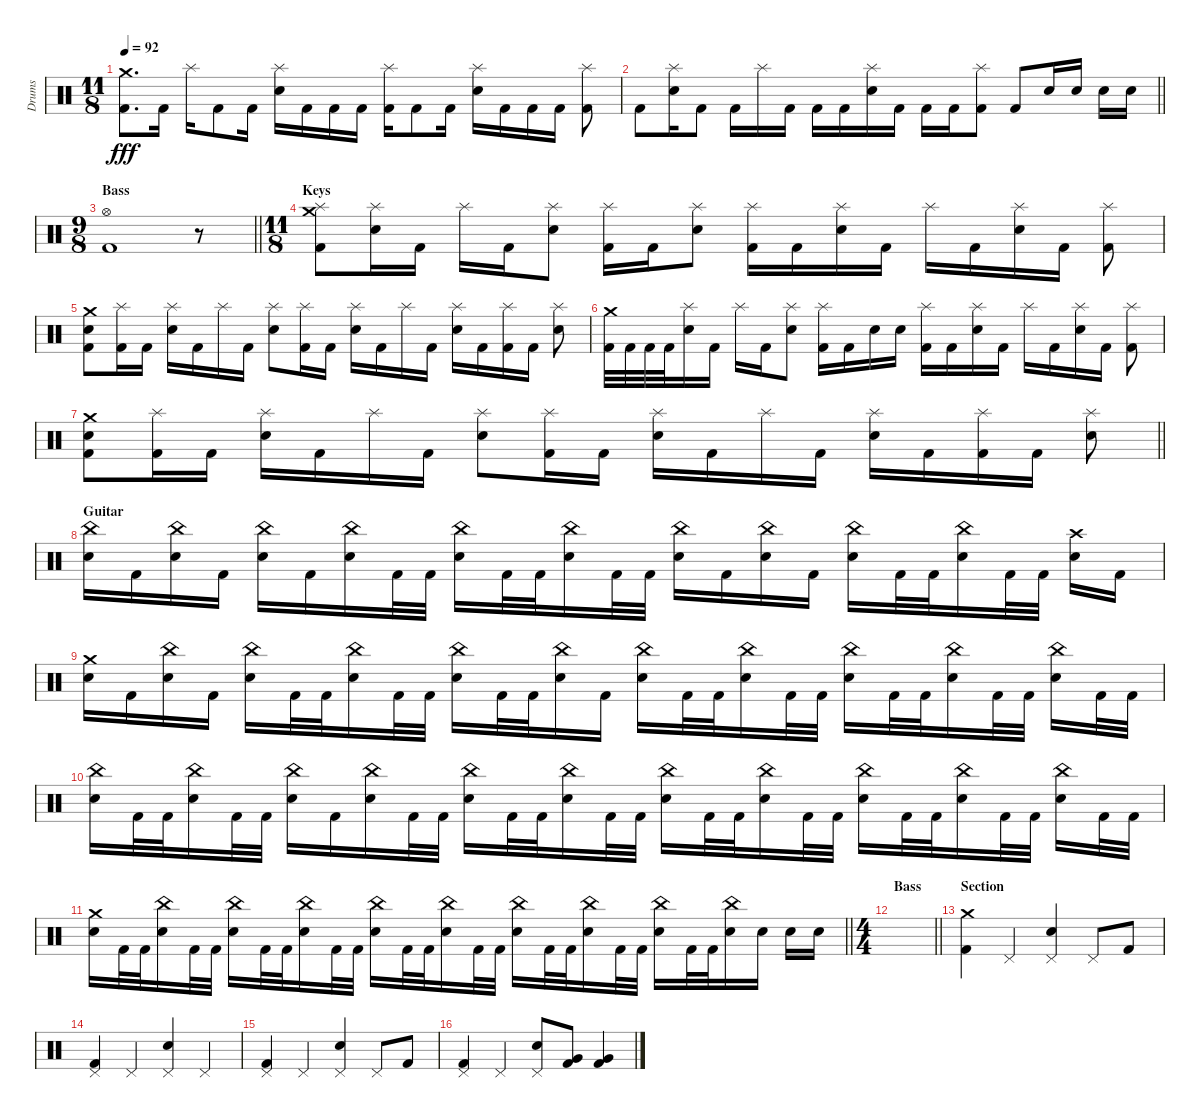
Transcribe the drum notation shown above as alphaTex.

\track ("Drums" "Drums") {instrument percussion}
\staff {score}
\articulation defaults
\ts (11 8)
\tempo 92
\clef neutral
\ks c
("Crash medium (hit)" "Kick (hit) 2").8{d dy fff} "Kick (hit) 2".16 "Splash (hit)".16 "Kick (hit) 2".8 "Kick (hit) 2".16 ("Splash (hit)" "Snare (hit) 2").16 "Kick (hit) 2".16 "Kick (hit) 2".16 "Kick (hit) 2".16 ("Splash (hit)" "Kick (hit) 2").16 "Kick (hit) 2".8 "Kick (hit) 2".16 ("Splash (hit)" "Snare (hit) 2").16 "Kick (hit) 2".16 "Kick (hit) 2".16 "Kick (hit) 2".16 ("Splash (hit)" "Kick (hit) 2").8 |
\barLineRight lightlight "Kick (hit) 2".8
("Splash (hit)" "Snare (hit) 2").16 "Kick (hit) 2".8 "Kick (hit) 2".16 "Splash (hit)".16 "Kick (hit) 2".16 "Kick (hit) 2".16 "Kick (hit) 2".16 ("Splash (hit)" "Snare (hit) 2").16 "Kick (hit) 2".16 "Kick (hit) 2".16 "Kick (hit) 2".16 ("Splash (hit)" "Kick (hit) 2").8 "Kick (hit) 2".8 "Snare (hit) 2".16 "Snare (hit) 2".16 "Snare (hit) 2".16 "Snare (hit) 2".16 |
\ts (9 8)
\section ("" "Bass ")
\barLineRight lightlight
("Hi-Hat (open)" "Kick (hit) 2").1 r.8 |
\ts (11 8)
\section ("" "Keys ")
("Crash medium (hit)" "Splash (hit)" "Kick (hit) 2").8 ("Splash (hit)" "Snare (hit) 2").16 "Kick (hit) 2".16 "Splash (hit)".16 "Kick (hit) 2".16 ("Splash (hit)" "Snare (hit) 2").8 ("Splash (hit)" "Kick (hit) 2").16 "Kick (hit) 2".16 ("Splash (hit)" "Snare (hit) 2").8 ("Splash (hit)" "Kick (hit) 2").16 "Kick (hit) 2".16 ("Splash (hit)" "Snare (hit) 2").16 "Kick (hit) 2".16 "Splash (hit)".16 "Kick (hit) 2".16 ("Splash (hit)" "Snare (hit) 2").16 "Kick (hit) 2".16 ("Splash (hit)" "Kick (hit) 2").8 |
("Crash medium (hit)" "Snare (hit) 2" "Kick (hit) 2").8 ("Splash (hit)" "Kick (hit) 2").16 "Kick (hit) 2".16 ("Splash (hit)" "Snare (hit) 2").16 "Kick (hit) 2".16 "Splash (hit)".16 "Kick (hit) 2".16 ("Splash (hit)" "Snare (hit) 2").8 ("Splash (hit)" "Kick (hit) 2").16 "Kick (hit) 2".16 ("Splash (hit)" "Snare (hit) 2").16 "Kick (hit) 2".16 "Splash (hit)".16 "Kick (hit) 2".16 ("Splash (hit)" "Snare (hit) 2").16 "Kick (hit) 2".16 ("Splash (hit)" "Kick (hit) 2").16 "Kick (hit) 2".16 ("Splash (hit)" "Snare (hit) 2").8 |
("Crash medium (hit)" "Kick (hit) 2").32 "Kick (hit) 2".32 "Kick (hit) 2".32 "Kick (hit) 2".32 ("Splash (hit)" "Snare (hit) 2").16 "Kick (hit) 2".16 "Splash (hit)".16 "Kick (hit) 2".16 ("Splash (hit)" "Snare (hit) 2").8 ("Splash (hit)" "Kick (hit) 2").16 "Kick (hit) 2".16 "Snare (hit) 2".16 "Snare (hit) 2".16 ("Splash (hit)" "Kick (hit) 2").16 "Kick (hit) 2".16 ("Splash (hit)" "Snare (hit) 2").16 "Kick (hit) 2".16 "Splash (hit)".16 "Kick (hit) 2".16 ("Splash (hit)" "Snare (hit) 2").16 "Kick (hit) 2".16 ("Splash (hit)" "Kick (hit) 2").8 |
\barLineRight lightlight
("Crash medium (hit)" "Snare (hit) 2" "Kick (hit) 2").8 ("Splash (hit)" "Kick (hit) 2").16 "Kick (hit) 2".16 ("Splash (hit)" "Snare (hit) 2").16 "Kick (hit) 2".16 "Splash (hit)".16 "Kick (hit) 2".16 ("Splash (hit)" "Snare (hit) 2").8 ("Splash (hit)" "Kick (hit) 2").16 "Kick (hit) 2".16 ("Splash (hit)" "Snare (hit) 2").16 "Kick (hit) 2".16 "Splash (hit)".16 "Kick (hit) 2".16 ("Splash (hit)" "Snare (hit) 2").16 "Kick (hit) 2".16 ("Splash (hit)" "Kick (hit) 2").16 "Kick (hit) 2".16 ("Splash (hit)" "Snare (hit) 2").8 |
\section ("" "Guitar")
("China (hit)" "Snare (hit) 2").16 "Kick (hit) 2".16 ("China (hit)" "Snare (hit) 2").16 "Kick (hit) 2".16 ("China (hit)" "Snare (hit) 2").16 "Kick (hit) 2".16 ("China (hit)" "Snare (hit) 2").16 "Kick (hit) 2".32 "Kick (hit) 2".32 ("China (hit)" "Snare (hit) 2").16 "Kick (hit) 2".32 "Kick (hit) 2".32 ("China (hit)" "Snare (hit) 2").16 "Kick (hit) 2".32 "Kick (hit) 2".32 ("China (hit)" "Snare (hit) 2").16 "Kick (hit) 2".16 ("China (hit)" "Snare (hit) 2").16 "Kick (hit) 2".16 ("China (hit)" "Snare (hit) 2").16 "Kick (hit) 2".32 "Kick (hit) 2".32 ("China (hit)" "Snare (hit) 2").16 "Kick (hit) 2".32 "Kick (hit) 2".32 ("Crash high (hit)" "Snare (hit) 2").16 "Kick (hit) 2".16 |
("Crash medium (hit)" "Snare (hit) 2").16 "Kick (hit) 2".16 ("China (hit)" "Snare (hit) 2").16 "Kick (hit) 2".16 ("China (hit)" "Snare (hit) 2").16 "Kick (hit) 2".32 "Kick (hit) 2".32 ("China (hit)" "Snare (hit) 2").16 "Kick (hit) 2".32 "Kick (hit) 2".32 ("China (hit)" "Snare (hit) 2").16 "Kick (hit) 2".32 "Kick (hit) 2".32 ("China (hit)" "Snare (hit) 2").16 "Kick (hit) 2".16 ("China (hit)" "Snare (hit) 2").16 "Kick (hit) 2".32 "Kick (hit) 2".32 ("China (hit)" "Snare (hit) 2").16 "Kick (hit) 2".32 "Kick (hit) 2".32 ("China (hit)" "Snare (hit) 2").16 "Kick (hit) 2".32 "Kick (hit) 2".32 ("China (hit)" "Snare (hit) 2").16 "Kick (hit) 2".32 "Kick (hit) 2".32 ("China (hit)" "Snare (hit) 2").16 "Kick (hit) 2".32 "Kick (hit) 2".32 |
("China (hit)" "Snare (hit) 2").16 "Kick (hit) 2".32 "Kick (hit) 2".32 ("China (hit)" "Snare (hit) 2").16 "Kick (hit) 2".32 "Kick (hit) 2".32 ("China (hit)" "Snare (hit) 2").16 "Kick (hit) 2".16 ("China (hit)" "Snare (hit) 2").16 "Kick (hit) 2".32 "Kick (hit) 2".32 ("China (hit)" "Snare (hit) 2").16 "Kick (hit) 2".32 "Kick (hit) 2".32 ("China (hit)" "Snare (hit) 2").16 "Kick (hit) 2".32 "Kick (hit) 2".32 ("China (hit)" "Snare (hit) 2").16 "Kick (hit) 2".32 "Kick (hit) 2".32 ("China (hit)" "Snare (hit) 2").16 "Kick (hit) 2".32 "Kick (hit) 2".32 ("China (hit)" "Snare (hit) 2").16 "Kick (hit) 2".32 "Kick (hit) 2".32 ("China (hit)" "Snare (hit) 2").16 "Kick (hit) 2".32 "Kick (hit) 2".32 ("China (hit)" "Snare (hit) 2").16 "Kick (hit) 2".32 "Kick (hit) 2".32 |
\barLineRight lightlight
("Crash medium (hit)" "Snare (hit) 2").16 "Kick (hit) 2".32 "Kick (hit) 2".32 ("China (hit)" "Snare (hit) 2").16 "Kick (hit) 2".32 "Kick (hit) 2".32 ("China (hit)" "Snare (hit) 2").16 "Kick (hit) 2".32 "Kick (hit) 2".32 ("China (hit)" "Snare (hit) 2").16 "Kick (hit) 2".32 "Kick (hit) 2".32 ("China (hit)" "Snare (hit) 2").16 "Kick (hit) 2".32 "Kick (hit) 2".32 ("China (hit)" "Snare (hit) 2").16 "Kick (hit) 2".32 "Kick (hit) 2".32 ("China (hit)" "Snare (hit) 2").16 "Kick (hit) 2".32 "Kick (hit) 2".32 ("China (hit)" "Snare (hit) 2").16 "Kick (hit) 2".32 "Kick (hit) 2".32 ("China (hit)" "Snare (hit) 2").16 "Kick (hit) 2".32 "Kick (hit) 2".32 ("China (hit)" "Snare (hit) 2").16 "Snare (hit) 2".16 "Snare (hit) 2".16 "Snare (hit) 2".16 |
\ts (4 4)
\section ("" "Bass")
\barLineRight lightlight
|
\section ("" "Section")
("Crash medium (hit)" "Kick (hit) 2").4 "Pedal Hi-Hat (hit)".4 ("Pedal Hi-Hat (hit)" "Snare (hit) 2").4 "Pedal Hi-Hat (hit)".8 "Kick (hit) 2".8 |
("Pedal Hi-Hat (hit)" "Kick (hit) 2").4 "Pedal Hi-Hat (hit)".4 ("Pedal Hi-Hat (hit)" "Snare (hit) 2").4 "Pedal Hi-Hat (hit)".4 |
("Pedal Hi-Hat (hit)" "Kick (hit) 2").4 "Pedal Hi-Hat (hit)".4 ("Pedal Hi-Hat (hit)" "Snare (hit) 2").4 "Pedal Hi-Hat (hit)".8 "Kick (hit) 2".8 |
("Pedal Hi-Hat (hit)" "Kick (hit) 2").4 "Pedal Hi-Hat (hit)".4 ("Pedal Hi-Hat (hit)" "Snare (hit) 2").8 ("Very Low Tom (hit)" "Kick (hit) 2").8 ("Very Low Tom (hit)" "Kick (hit) 2").4
